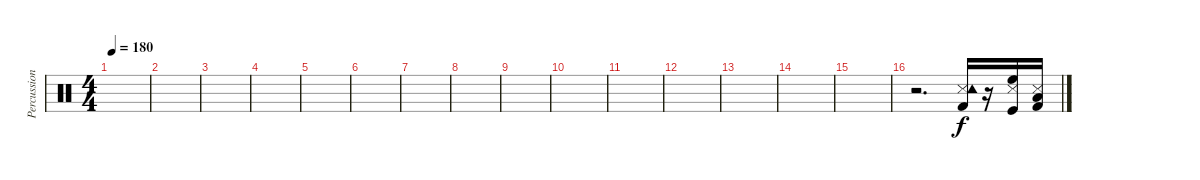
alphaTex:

\track ("Percussions" "Percussion") {instrument percussion}
\staff {score}
\articulation defaults
\ts (4 4)
\tempo 180
\clef neutral
\ks c
|
|
|
|
|
|
|
|
|
|
|
|
|
|
|
r.2{d} ("Snare (side stick) 3" "Tambourine (hit)" "Kick (hit) 2").16 r.16 ("Snare (side stick) 3" "High Floor Tom (hit)" "Kick (hit)").16 ("Snare (side stick) 3" "Low Tom (hit)" "Kick (hit) 2").16
